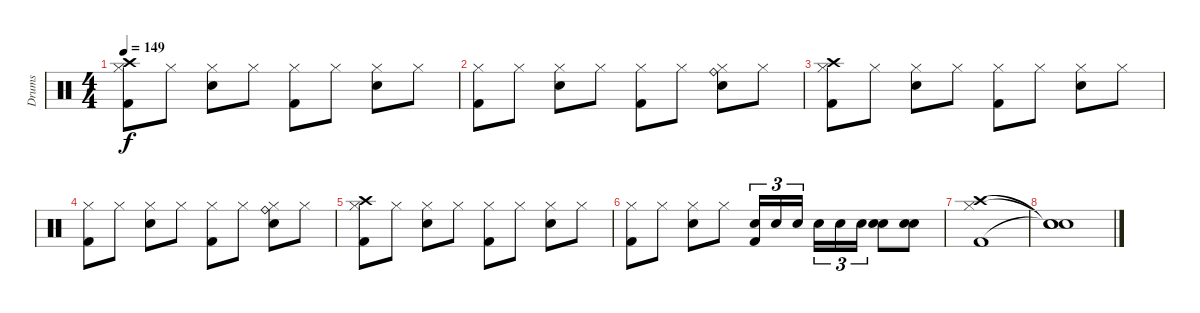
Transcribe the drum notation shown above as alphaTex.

\track ("Drums" "Drums") {instrument percussion}
\staff {score}
\articulation defaults
\ts (4 4)
\tempo 149
\clef neutral
\ks c
("Hi-Hat (closed)" "Crash high (hit)" "Kick (hit) 2").8{dy f} "Hi-Hat (closed)".8 ("Hi-Hat (closed)" "Electric Snare (hit)").8 "Hi-Hat (closed)".8 ("Hi-Hat (closed)" "Kick (hit) 2").8 "Hi-Hat (closed)".8 ("Hi-Hat (closed)" "Electric Snare (hit)").8 "Hi-Hat (closed)".8 |
("Hi-Hat (closed)" "Kick (hit) 2").8 "Hi-Hat (closed)".8 ("Hi-Hat (closed)" "Electric Snare (hit)").8 "Hi-Hat (closed)".8 ("Hi-Hat (closed)" "Kick (hit) 2").8 "Hi-Hat (closed)".8 ("Ride (bell)" "Hi-Hat (closed)" "Electric Snare (hit)").8 "Hi-Hat (closed)".8 |
("Hi-Hat (closed)" "Crash high (hit)" "Kick (hit) 2").8 "Hi-Hat (closed)".8 ("Hi-Hat (closed)" "Electric Snare (hit)").8 "Hi-Hat (closed)".8 ("Hi-Hat (closed)" "Kick (hit) 2").8 "Hi-Hat (closed)".8 ("Hi-Hat (closed)" "Electric Snare (hit)").8 "Hi-Hat (closed)".8 |
("Hi-Hat (closed)" "Kick (hit) 2").8 "Hi-Hat (closed)".8 ("Hi-Hat (closed)" "Electric Snare (hit)").8 "Hi-Hat (closed)".8 ("Hi-Hat (closed)" "Kick (hit) 2").8 "Hi-Hat (closed)".8 ("Ride (bell)" "Hi-Hat (closed)" "Electric Snare (hit)").8 "Hi-Hat (closed)".8 |
("Hi-Hat (closed)" "Crash high (hit)" "Kick (hit) 2").8 "Hi-Hat (closed)".8 ("Hi-Hat (closed)" "Electric Snare (hit)").8 "Hi-Hat (closed)".8 ("Hi-Hat (closed)" "Kick (hit) 2").8 "Hi-Hat (closed)".8 ("Hi-Hat (closed)" "Electric Snare (hit)").8 "Hi-Hat (closed)".8 |
("Hi-Hat (closed)" "Kick (hit) 2").8 "Hi-Hat (closed)".8 ("Hi-Hat (closed)" "Electric Snare (hit)").8 "Hi-Hat (closed)".8 ("Electric Snare (hit)" "Kick (hit) 2").16{tu (3 2)} "Electric Snare (hit)".16{tu (3 2)} "Electric Snare (hit)".16{tu (3 2) beam splitsecondary} "Electric Snare (hit)".16{tu (3 2)} "Electric Snare (hit)".16{tu (3 2)} "Electric Snare (hit)".16{tu (3 2)} ("Electric Snare (hit)" "Electric Snare (hit)").8 ("Electric Snare (hit)" "Electric Snare (hit)").8 |
("Hi-Hat (closed)" "Crash high (hit)" "Kick (hit) 2").1 |
("Snare (hit)"{t} "Snare (hit)"{t} "Snare (hit)"{t}).1
